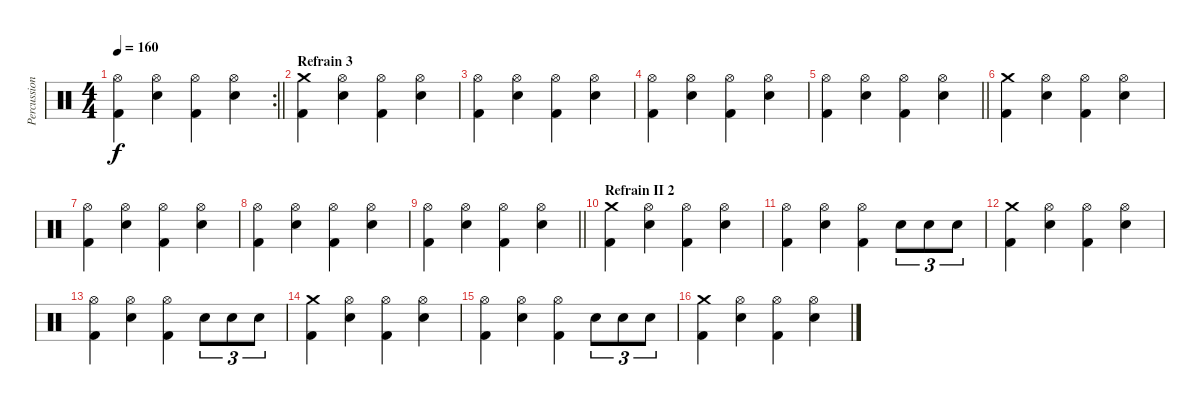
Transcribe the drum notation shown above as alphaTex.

\track ("Percussions" "Percussion") {instrument percussion}
\staff
\articulation defaults
\rc 2
\ts (4 4)
\tempo 160
\clef neutral
\barLineRight lightlight
\ks c
("Hi-Hat (open)" "Kick (hit) 2").4{dy f} ("Hi-Hat (open)" "Electric Snare (hit)").4 ("Hi-Hat (open)" "Kick (hit) 2").4 ("Hi-Hat (open)" "Electric Snare (hit)").4 |
\section ("" "Refrain 3")
("Crash medium (hit)" "Kick (hit) 2").4 ("Hi-Hat (open)" "Electric Snare (hit)").4 ("Hi-Hat (open)" "Kick (hit) 2").4 ("Hi-Hat (open)" "Electric Snare (hit)").4 |
("Hi-Hat (open)" "Kick (hit) 2").4 ("Hi-Hat (open)" "Electric Snare (hit)").4 ("Hi-Hat (open)" "Kick (hit) 2").4 ("Hi-Hat (open)" "Electric Snare (hit)").4 |
("Hi-Hat (open)" "Kick (hit) 2").4 ("Hi-Hat (open)" "Electric Snare (hit)").4 ("Hi-Hat (open)" "Kick (hit) 2").4 ("Hi-Hat (open)" "Electric Snare (hit)").4 |
\barLineRight lightlight
("Hi-Hat (open)" "Kick (hit) 2").4 ("Hi-Hat (open)" "Electric Snare (hit)").4 ("Hi-Hat (open)" "Kick (hit) 2").4 ("Hi-Hat (open)" "Electric Snare (hit)").4 |
("Crash medium (hit)" "Kick (hit) 2").4 ("Hi-Hat (open)" "Electric Snare (hit)").4 ("Hi-Hat (open)" "Kick (hit) 2").4 ("Hi-Hat (open)" "Electric Snare (hit)").4 |
("Hi-Hat (open)" "Kick (hit) 2").4 ("Hi-Hat (open)" "Electric Snare (hit)").4 ("Hi-Hat (open)" "Kick (hit) 2").4 ("Hi-Hat (open)" "Electric Snare (hit)").4 |
("Hi-Hat (open)" "Kick (hit) 2").4 ("Hi-Hat (open)" "Electric Snare (hit)").4 ("Hi-Hat (open)" "Kick (hit) 2").4 ("Hi-Hat (open)" "Electric Snare (hit)").4 |
\barLineRight lightlight
("Hi-Hat (open)" "Kick (hit) 2").4 ("Hi-Hat (open)" "Electric Snare (hit)").4 ("Hi-Hat (open)" "Kick (hit) 2").4 ("Hi-Hat (open)" "Electric Snare (hit)").4 |
\section ("" "Refrain II 2")
("Crash medium (hit)" "Kick (hit) 2").4 ("Hi-Hat (open)" "Electric Snare (hit)").4 ("Hi-Hat (open)" "Kick (hit) 2").4 ("Hi-Hat (open)" "Electric Snare (hit)").4 |
("Hi-Hat (open)" "Kick (hit) 2").4 ("Hi-Hat (open)" "Electric Snare (hit)").4 ("Hi-Hat (open)" "Kick (hit) 2").4 "Electric Snare (hit)".8{tu (3 2)} "Electric Snare (hit)".8{tu (3 2)} "Electric Snare (hit)".8{tu (3 2)} |
("Crash medium (hit)" "Kick (hit) 2").4 ("Hi-Hat (open)" "Electric Snare (hit)").4 ("Hi-Hat (open)" "Kick (hit) 2").4 ("Hi-Hat (open)" "Electric Snare (hit)").4 |
("Hi-Hat (open)" "Kick (hit) 2").4 ("Hi-Hat (open)" "Electric Snare (hit)").4 ("Hi-Hat (open)" "Kick (hit) 2").4 "Electric Snare (hit)".8{tu (3 2)} "Electric Snare (hit)".8{tu (3 2)} "Electric Snare (hit)".8{tu (3 2)} |
("Crash medium (hit)" "Kick (hit) 2").4 ("Hi-Hat (open)" "Electric Snare (hit)").4 ("Hi-Hat (open)" "Kick (hit) 2").4 ("Hi-Hat (open)" "Electric Snare (hit)").4 |
("Hi-Hat (open)" "Kick (hit) 2").4 ("Hi-Hat (open)" "Electric Snare (hit)").4 ("Hi-Hat (open)" "Kick (hit) 2").4 "Electric Snare (hit)".8{tu (3 2)} "Electric Snare (hit)".8{tu (3 2)} "Electric Snare (hit)".8{tu (3 2)} |
("Crash medium (hit)" "Kick (hit) 2").4 ("Hi-Hat (open)" "Electric Snare (hit)").4 ("Hi-Hat (open)" "Kick (hit) 2").4 ("Hi-Hat (open)" "Electric Snare (hit)").4
